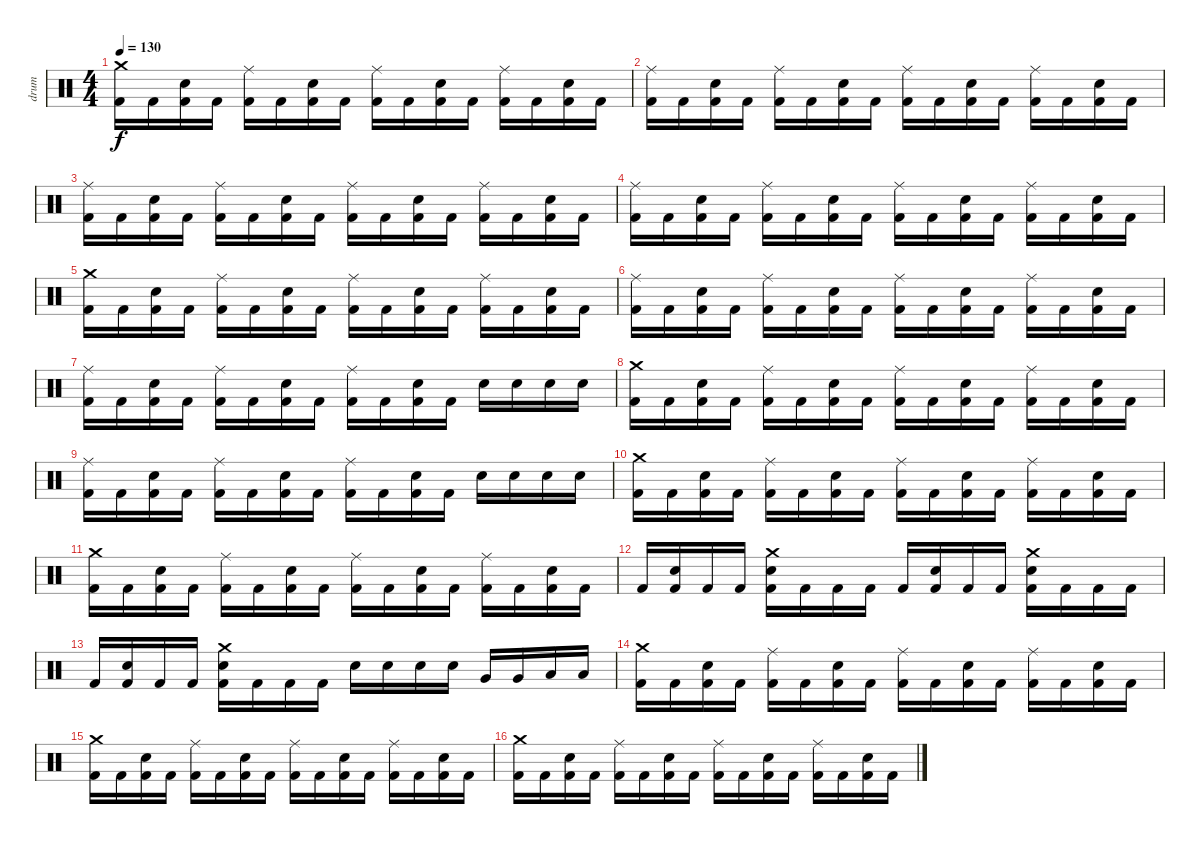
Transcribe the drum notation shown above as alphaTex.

\track ("drum" "drum") {instrument percussion}
\staff {score}
\articulation defaults
\ts (4 4)
\tempo 130
\clef neutral
\ks c
("Crash medium (hit)" "Kick (hit) 2").16{dy f} "Kick (hit) 2".16 ("Snare (hit) 2" "Kick (hit) 2").16 "Kick (hit) 2".16 ("Ride (middle)" "Kick (hit) 2").16 "Kick (hit) 2".16 ("Snare (hit) 2" "Kick (hit) 2").16 "Kick (hit) 2".16 ("Ride (middle)" "Kick (hit) 2").16 "Kick (hit) 2".16 ("Snare (hit) 2" "Kick (hit) 2").16 "Kick (hit) 2".16 ("Ride (middle)" "Kick (hit) 2").16 "Kick (hit) 2".16 ("Snare (hit) 2" "Kick (hit) 2").16 "Kick (hit) 2".16 |
("Ride (middle)" "Kick (hit) 2").16 "Kick (hit) 2".16 ("Snare (hit) 2" "Kick (hit) 2").16 "Kick (hit) 2".16 ("Ride (middle)" "Kick (hit) 2").16 "Kick (hit) 2".16 ("Snare (hit) 2" "Kick (hit) 2").16 "Kick (hit) 2".16 ("Ride (middle)" "Kick (hit) 2").16 "Kick (hit) 2".16 ("Snare (hit) 2" "Kick (hit) 2").16 "Kick (hit) 2".16 ("Ride (middle)" "Kick (hit) 2").16 "Kick (hit) 2".16 ("Snare (hit) 2" "Kick (hit) 2").16 "Kick (hit) 2".16 |
("Ride (middle)" "Kick (hit) 2").16 "Kick (hit) 2".16 ("Snare (hit) 2" "Kick (hit) 2").16 "Kick (hit) 2".16 ("Ride (middle)" "Kick (hit) 2").16 "Kick (hit) 2".16 ("Snare (hit) 2" "Kick (hit) 2").16 "Kick (hit) 2".16 ("Ride (middle)" "Kick (hit) 2").16 "Kick (hit) 2".16 ("Snare (hit) 2" "Kick (hit) 2").16 "Kick (hit) 2".16 ("Ride (middle)" "Kick (hit) 2").16 "Kick (hit) 2".16 ("Snare (hit) 2" "Kick (hit) 2").16 "Kick (hit) 2".16 |
("Ride (middle)" "Kick (hit) 2").16 "Kick (hit) 2".16 ("Snare (hit) 2" "Kick (hit) 2").16 "Kick (hit) 2".16 ("Ride (middle)" "Kick (hit) 2").16 "Kick (hit) 2".16 ("Snare (hit) 2" "Kick (hit) 2").16 "Kick (hit) 2".16 ("Ride (middle)" "Kick (hit) 2").16 "Kick (hit) 2".16 ("Snare (hit) 2" "Kick (hit) 2").16 "Kick (hit) 2".16 ("Ride (middle)" "Kick (hit) 2").16 "Kick (hit) 2".16 ("Snare (hit) 2" "Kick (hit) 2").16 "Kick (hit) 2".16 |
("Crash medium (hit)" "Kick (hit) 2").16 "Kick (hit) 2".16 ("Snare (hit) 2" "Kick (hit) 2").16 "Kick (hit) 2".16 ("Ride (middle)" "Kick (hit) 2").16 "Kick (hit) 2".16 ("Snare (hit) 2" "Kick (hit) 2").16 "Kick (hit) 2".16 ("Ride (middle)" "Kick (hit) 2").16 "Kick (hit) 2".16 ("Snare (hit) 2" "Kick (hit) 2").16 "Kick (hit) 2".16 ("Ride (middle)" "Kick (hit) 2").16 "Kick (hit) 2".16 ("Snare (hit) 2" "Kick (hit) 2").16 "Kick (hit) 2".16 |
("Ride (middle)" "Kick (hit) 2").16 "Kick (hit) 2".16 ("Snare (hit) 2" "Kick (hit) 2").16 "Kick (hit) 2".16 ("Ride (middle)" "Kick (hit) 2").16 "Kick (hit) 2".16 ("Snare (hit) 2" "Kick (hit) 2").16 "Kick (hit) 2".16 ("Ride (middle)" "Kick (hit) 2").16 "Kick (hit) 2".16 ("Snare (hit) 2" "Kick (hit) 2").16 "Kick (hit) 2".16 ("Ride (middle)" "Kick (hit) 2").16 "Kick (hit) 2".16 ("Snare (hit) 2" "Kick (hit) 2").16 "Kick (hit) 2".16 |
("Ride (middle)" "Kick (hit) 2").16 "Kick (hit) 2".16 ("Snare (hit) 2" "Kick (hit) 2").16 "Kick (hit) 2".16 ("Ride (middle)" "Kick (hit) 2").16 "Kick (hit) 2".16 ("Snare (hit) 2" "Kick (hit) 2").16 "Kick (hit) 2".16 ("Ride (middle)" "Kick (hit) 2").16 "Kick (hit) 2".16 ("Snare (hit) 2" "Kick (hit) 2").16 "Kick (hit) 2".16 "Snare (hit) 2".16 "Snare (hit) 2".16 "Snare (hit) 2".16 "Snare (hit) 2".16 |
("Crash medium (hit)" "Kick (hit) 2").16 "Kick (hit) 2".16 ("Snare (hit) 2" "Kick (hit) 2").16 "Kick (hit) 2".16 ("Ride (middle)" "Kick (hit) 2").16 "Kick (hit) 2".16 ("Snare (hit) 2" "Kick (hit) 2").16 "Kick (hit) 2".16 ("Ride (middle)" "Kick (hit) 2").16 "Kick (hit) 2".16 ("Snare (hit) 2" "Kick (hit) 2").16 "Kick (hit) 2".16 ("Ride (middle)" "Kick (hit) 2").16 "Kick (hit) 2".16 ("Snare (hit) 2" "Kick (hit) 2").16 "Kick (hit) 2".16 |
("Ride (middle)" "Kick (hit) 2").16 "Kick (hit) 2".16 ("Snare (hit) 2" "Kick (hit) 2").16 "Kick (hit) 2".16 ("Ride (middle)" "Kick (hit) 2").16 "Kick (hit) 2".16 ("Snare (hit) 2" "Kick (hit) 2").16 "Kick (hit) 2".16 ("Ride (middle)" "Kick (hit) 2").16 "Kick (hit) 2".16 ("Snare (hit) 2" "Kick (hit) 2").16 "Kick (hit) 2".16 "Snare (hit) 2".16 "Snare (hit) 2".16 "Snare (hit) 2".16 "Snare (hit) 2".16 |
("Crash medium (hit)" "Kick (hit) 2").16 "Kick (hit) 2".16 ("Snare (hit) 2" "Kick (hit) 2").16 "Kick (hit) 2".16 ("Ride (middle)" "Kick (hit) 2").16 "Kick (hit) 2".16 ("Snare (hit) 2" "Kick (hit) 2").16 "Kick (hit) 2".16 ("Ride (middle)" "Kick (hit) 2").16 "Kick (hit) 2".16 ("Snare (hit) 2" "Kick (hit) 2").16 "Kick (hit) 2".16 ("Ride (middle)" "Kick (hit) 2").16 "Kick (hit) 2".16 ("Snare (hit) 2" "Kick (hit) 2").16 "Kick (hit) 2".16 |
("Crash medium (hit)" "Kick (hit) 2").16 "Kick (hit) 2".16 ("Snare (hit) 2" "Kick (hit) 2").16 "Kick (hit) 2".16 ("Ride (middle)" "Kick (hit) 2").16 "Kick (hit) 2".16 ("Snare (hit) 2" "Kick (hit) 2").16 "Kick (hit) 2".16 ("Ride (middle)" "Kick (hit) 2").16 "Kick (hit) 2".16 ("Snare (hit) 2" "Kick (hit) 2").16 "Kick (hit) 2".16 ("Ride (middle)" "Kick (hit) 2").16 "Kick (hit) 2".16 ("Snare (hit) 2" "Kick (hit) 2").16 "Kick (hit) 2".16 |
"Kick (hit) 2".16 ("Snare (hit) 2" "Kick (hit) 2").16 "Kick (hit) 2".16 "Kick (hit) 2".16 ("Crash medium (hit)" "Snare (hit) 2" "Kick (hit) 2").16 "Kick (hit) 2".16 "Kick (hit) 2".16 "Kick (hit) 2".16 "Kick (hit) 2".16 ("Snare (hit) 2" "Kick (hit) 2").16 "Kick (hit) 2".16 "Kick (hit) 2".16 ("Crash medium (hit)" "Snare (hit) 2" "Kick (hit) 2").16 "Kick (hit) 2".16 "Kick (hit) 2".16 "Kick (hit) 2".16 |
"Kick (hit) 2".16 ("Snare (hit) 2" "Kick (hit) 2").16 "Kick (hit) 2".16 "Kick (hit) 2".16 ("Crash medium (hit)" "Snare (hit) 2" "Kick (hit) 2").16 "Kick (hit) 2".16 "Kick (hit) 2".16 "Kick (hit) 2".16 "Snare (hit) 2".16 "Snare (hit) 2".16 "Snare (hit) 2".16 "Snare (hit) 2".16 "Very Low Tom (hit)".16 "Very Low Tom (hit)".16 "Low Floor Tom (hit)".16 "Low Floor Tom (hit)".16 |
("Crash medium (hit)" "Kick (hit) 2").16 "Kick (hit) 2".16 ("Snare (hit) 2" "Kick (hit) 2").16 "Kick (hit) 2".16 ("Ride (middle)" "Kick (hit) 2").16 "Kick (hit) 2".16 ("Snare (hit) 2" "Kick (hit) 2").16 "Kick (hit) 2".16 ("Ride (middle)" "Kick (hit) 2").16 "Kick (hit) 2".16 ("Snare (hit) 2" "Kick (hit) 2").16 "Kick (hit) 2".16 ("Ride (middle)" "Kick (hit) 2").16 "Kick (hit) 2".16 ("Snare (hit) 2" "Kick (hit) 2").16 "Kick (hit) 2".16 |
("Crash medium (hit)" "Kick (hit) 2").16 "Kick (hit) 2".16 ("Snare (hit) 2" "Kick (hit) 2").16 "Kick (hit) 2".16 ("Ride (middle)" "Kick (hit) 2").16 "Kick (hit) 2".16 ("Snare (hit) 2" "Kick (hit) 2").16 "Kick (hit) 2".16 ("Ride (middle)" "Kick (hit) 2").16 "Kick (hit) 2".16 ("Snare (hit) 2" "Kick (hit) 2").16 "Kick (hit) 2".16 ("Ride (middle)" "Kick (hit) 2").16 "Kick (hit) 2".16 ("Snare (hit) 2" "Kick (hit) 2").16 "Kick (hit) 2".16 |
("Crash medium (hit)" "Kick (hit) 2").16 "Kick (hit) 2".16 ("Snare (hit) 2" "Kick (hit) 2").16 "Kick (hit) 2".16 ("Ride (middle)" "Kick (hit) 2").16 "Kick (hit) 2".16 ("Snare (hit) 2" "Kick (hit) 2").16 "Kick (hit) 2".16 ("Ride (middle)" "Kick (hit) 2").16 "Kick (hit) 2".16 ("Snare (hit) 2" "Kick (hit) 2").16 "Kick (hit) 2".16 ("Ride (middle)" "Kick (hit) 2").16 "Kick (hit) 2".16 ("Snare (hit) 2" "Kick (hit) 2").16 "Kick (hit) 2".16
